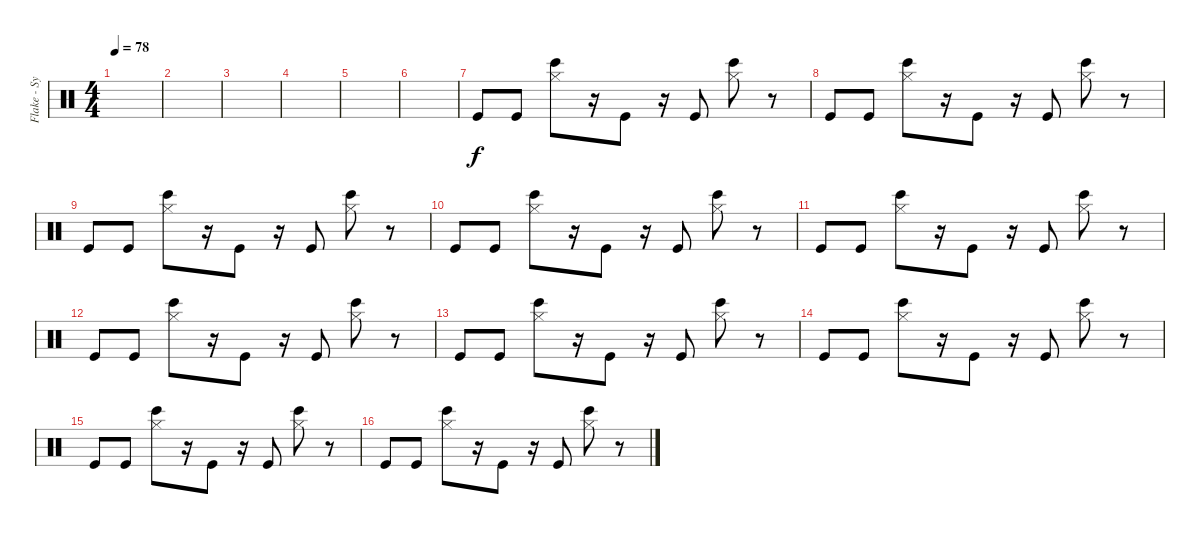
\track ("Flake - Synth Drums" "Flake - Sy") {instrument percussion}
\staff {score}
\articulation defaults
\ts (4 4)
\tempo 78
\clef neutral
\ks c
|
|
|
|
|
|
"Kick (hit)".8 "Kick (hit)".8 ("Bongo High (hit)" "Hi-Hat (closed)").8 r.16 "Kick (hit)".8 r.16 "Kick (hit)".8 ("Bongo High (hit)" "Hi-Hat (closed)").8 r.8 |
"Kick (hit)".8 "Kick (hit)".8 ("Bongo High (hit)" "Hi-Hat (closed)").8 r.16 "Kick (hit)".8 r.16 "Kick (hit)".8 ("Bongo High (hit)" "Hi-Hat (closed)").8 r.8 |
"Kick (hit)".8 "Kick (hit)".8 ("Bongo High (hit)" "Hi-Hat (closed)").8 r.16 "Kick (hit)".8 r.16 "Kick (hit)".8 ("Bongo High (hit)" "Hi-Hat (closed)").8 r.8 |
"Kick (hit)".8 "Kick (hit)".8 ("Bongo High (hit)" "Hi-Hat (closed)").8 r.16 "Kick (hit)".8 r.16 "Kick (hit)".8 ("Bongo High (hit)" "Hi-Hat (closed)").8 r.8 |
"Kick (hit)".8 "Kick (hit)".8 ("Bongo High (hit)" "Hi-Hat (closed)").8 r.16 "Kick (hit)".8 r.16 "Kick (hit)".8 ("Bongo High (hit)" "Hi-Hat (closed)").8 r.8 |
"Kick (hit)".8 "Kick (hit)".8 ("Bongo High (hit)" "Hi-Hat (closed)").8 r.16 "Kick (hit)".8 r.16 "Kick (hit)".8 ("Bongo High (hit)" "Hi-Hat (closed)").8 r.8 |
"Kick (hit)".8 "Kick (hit)".8 ("Bongo High (hit)" "Hi-Hat (closed)").8 r.16 "Kick (hit)".8 r.16 "Kick (hit)".8 ("Bongo High (hit)" "Hi-Hat (closed)").8 r.8 |
"Kick (hit)".8 "Kick (hit)".8 ("Bongo High (hit)" "Hi-Hat (closed)").8 r.16 "Kick (hit)".8 r.16 "Kick (hit)".8 ("Bongo High (hit)" "Hi-Hat (closed)").8 r.8 |
"Kick (hit)".8 "Kick (hit)".8 ("Bongo High (hit)" "Hi-Hat (closed)").8 r.16 "Kick (hit)".8 r.16 "Kick (hit)".8 ("Bongo High (hit)" "Hi-Hat (closed)").8 r.8 |
"Kick (hit)".8 "Kick (hit)".8 ("Bongo High (hit)" "Hi-Hat (closed)").8 r.16 "Kick (hit)".8 r.16 "Kick (hit)".8 ("Bongo High (hit)" "Hi-Hat (closed)").8 r.8
